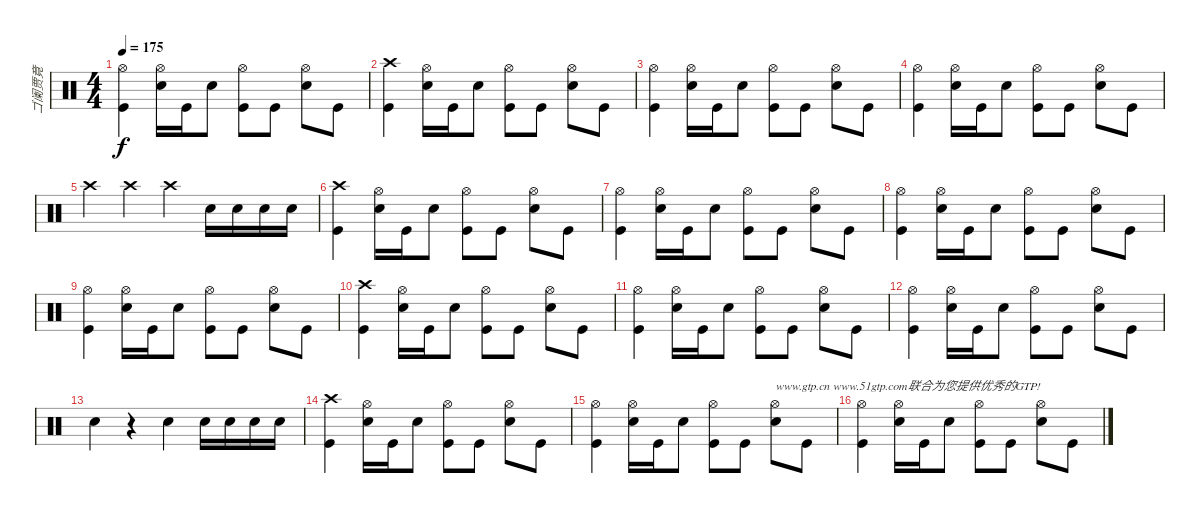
\track ("ゴ阑贾竟" "ゴ阑贾竟") {instrument percussion}
\staff {score}
\articulation defaults
\ts (4 4)
\tempo 175
\clef neutral
\ks c
("Hi-Hat (open)" "Kick (hit)").4{dy f} ("Snare (hit) 2" "Hi-Hat (open)").16 "Kick (hit)".16 "Snare (hit) 2".8 ("Kick (hit)" "Hi-Hat (open)").8 "Kick (hit)".8 ("Snare (hit) 2" "Hi-Hat (open)").8 "Kick (hit)".8 |
("Crash high (hit)" "Kick (hit)").4 ("Snare (hit) 2" "Hi-Hat (open)").16 "Kick (hit)".16 "Snare (hit) 2".8 ("Kick (hit)" "Hi-Hat (open)").8 "Kick (hit)".8 ("Snare (hit) 2" "Hi-Hat (open)").8 "Kick (hit)".8 |
("Hi-Hat (open)" "Kick (hit)").4 ("Snare (hit) 2" "Hi-Hat (open)").16 "Kick (hit)".16 "Snare (hit) 2".8 ("Kick (hit)" "Hi-Hat (open)").8 "Kick (hit)".8 ("Snare (hit) 2" "Hi-Hat (open)").8 "Kick (hit)".8 |
("Hi-Hat (open)" "Kick (hit)").4 ("Snare (hit) 2" "Hi-Hat (open)").16 "Kick (hit)".16 "Snare (hit) 2".8 ("Kick (hit)" "Hi-Hat (open)").8 "Kick (hit)".8 ("Snare (hit) 2" "Hi-Hat (open)").8 "Kick (hit)".8 |
"Crash high (hit)".4 "Crash high (hit)".4 "Crash high (hit)".4 "Snare (hit) 2".16 "Snare (hit) 2".16 "Snare (hit) 2".16 "Snare (hit) 2".16 |
("Crash high (hit)" "Kick (hit)").4 ("Snare (hit) 2" "Hi-Hat (open)").16 "Kick (hit)".16 "Snare (hit) 2".8 ("Kick (hit)" "Hi-Hat (open)").8 "Kick (hit)".8 ("Snare (hit) 2" "Hi-Hat (open)").8 "Kick (hit)".8 |
("Hi-Hat (open)" "Kick (hit)").4 ("Snare (hit) 2" "Hi-Hat (open)").16 "Kick (hit)".16 "Snare (hit) 2".8 ("Kick (hit)" "Hi-Hat (open)").8 "Kick (hit)".8 ("Snare (hit) 2" "Hi-Hat (open)").8 "Kick (hit)".8 |
("Hi-Hat (open)" "Kick (hit)").4 ("Snare (hit) 2" "Hi-Hat (open)").16 "Kick (hit)".16 "Snare (hit) 2".8 ("Kick (hit)" "Hi-Hat (open)").8 "Kick (hit)".8 ("Snare (hit) 2" "Hi-Hat (open)").8 "Kick (hit)".8 |
("Hi-Hat (open)" "Kick (hit)").4 ("Snare (hit) 2" "Hi-Hat (open)").16 "Kick (hit)".16 "Snare (hit) 2".8 ("Kick (hit)" "Hi-Hat (open)").8 "Kick (hit)".8 ("Snare (hit) 2" "Hi-Hat (open)").8 "Kick (hit)".8 |
("Crash high (hit)" "Kick (hit)").4 ("Snare (hit) 2" "Hi-Hat (open)").16 "Kick (hit)".16 "Snare (hit) 2".8 ("Kick (hit)" "Hi-Hat (open)").8 "Kick (hit)".8 ("Snare (hit) 2" "Hi-Hat (open)").8 "Kick (hit)".8 |
("Hi-Hat (open)" "Kick (hit)").4 ("Snare (hit) 2" "Hi-Hat (open)").16 "Kick (hit)".16 "Snare (hit) 2".8 ("Kick (hit)" "Hi-Hat (open)").8 "Kick (hit)".8 ("Snare (hit) 2" "Hi-Hat (open)").8 "Kick (hit)".8 |
("Hi-Hat (open)" "Kick (hit)").4 ("Snare (hit) 2" "Hi-Hat (open)").16 "Kick (hit)".16 "Snare (hit) 2".8 ("Kick (hit)" "Hi-Hat (open)").8 "Kick (hit)".8 ("Snare (hit) 2" "Hi-Hat (open)").8 "Kick (hit)".8 |
"Snare (hit) 2".4 r.4 "Snare (hit) 2".4 "Snare (hit) 2".16 "Snare (hit) 2".16 "Snare (hit) 2".16 "Snare (hit) 2".16 |
("Crash high (hit)" "Kick (hit)").4 ("Snare (hit) 2" "Hi-Hat (open)").16 "Kick (hit)".16 "Snare (hit) 2".8 ("Kick (hit)" "Hi-Hat (open)").8 "Kick (hit)".8 ("Snare (hit) 2" "Hi-Hat (open)").8 "Kick (hit)".8 |
("Hi-Hat (open)" "Kick (hit)").4 ("Snare (hit) 2" "Hi-Hat (open)").16 "Kick (hit)".16 "Snare (hit) 2".8 ("Kick (hit)" "Hi-Hat (open)").8 "Kick (hit)".8 ("Snare (hit) 2" "Hi-Hat (open)").8{txt "www.gtp.cn www.51gtp.com联合为您提供优秀的GTP!"} "Kick (hit)".8 |
("Hi-Hat (open)" "Kick (hit)").4 ("Snare (hit) 2" "Hi-Hat (open)").16 "Kick (hit)".16 "Snare (hit) 2".8 ("Kick (hit)" "Hi-Hat (open)").8 "Kick (hit)".8 ("Snare (hit) 2" "Hi-Hat (open)").8 "Kick (hit)".8
